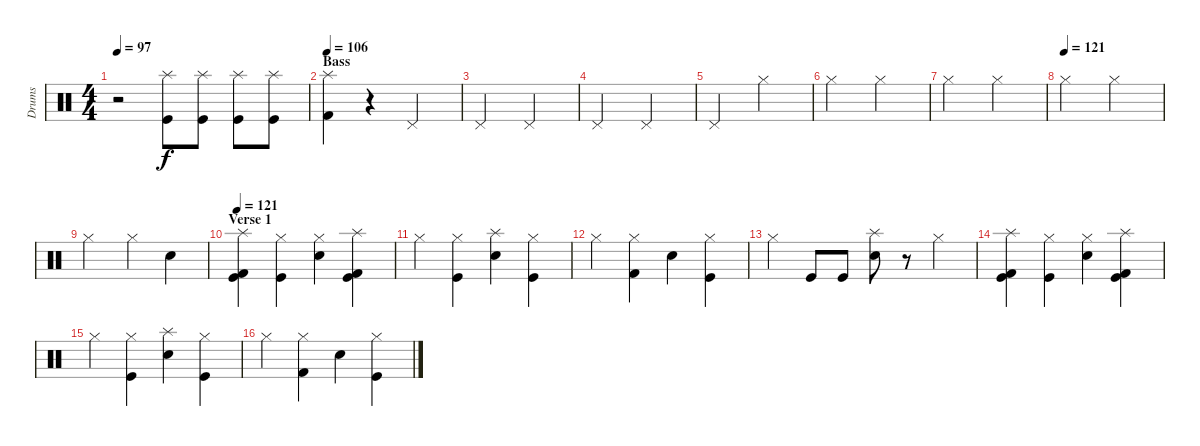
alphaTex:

\track ("Drums" "Drums") {instrument percussion}
\staff {score}
\articulation defaults
\ts (4 4)
\tempo 97
\clef neutral
\ks c
r.2{dy f} ("Splash (hit)" "Kick (hit)").8 ("Splash (hit)" "Kick (hit)").8 ("Splash (hit)" "Kick (hit)").8 ("Splash (hit)" "Kick (hit)").8 |
\section ("" "Bass")
\tempo 106
("Splash (hit)" "Kick (hit) 2").4 r.4 "Pedal Hi-Hat (hit)".2 |
"Pedal Hi-Hat (hit)".2 "Pedal Hi-Hat (hit)".2 |
"Pedal Hi-Hat (hit)".2 "Pedal Hi-Hat (hit)".2 |
"Pedal Hi-Hat (hit)".2 "Hi-Hat (closed)".2 |
"Hi-Hat (closed)".2 "Hi-Hat (closed)".2 |
"Hi-Hat (closed)".2 "Hi-Hat (closed)".2 |
\tempo (121)
"Hi-Hat (closed)".2 "Hi-Hat (closed)".2 |
"Hi-Hat (closed)".2 "Hi-Hat (closed)".4 "Electric Snare (hit)".4 |
\section ("" "Verse 1")
\tempo 121
("Kick (hit) 2" "Kick (hit)" "Splash (hit)").4 ("Kick (hit)" "Hi-Hat (closed)").4 ("Electric Snare (hit)" "Hi-Hat (closed)").4 ("Kick (hit) 2" "Kick (hit)" "Splash (hit)").4 |
"Hi-Hat (closed)".4 ("Kick (hit)" "Hi-Hat (closed)").4 ("Electric Snare (hit)" "Splash (hit)").4 ("Kick (hit)" "Hi-Hat (closed)").4 |
"Hi-Hat (closed)".4 ("Kick (hit) 2" "Hi-Hat (closed)").4 "Electric Snare (hit)".4 ("Kick (hit)" "Hi-Hat (closed)").4 |
"Hi-Hat (closed)".4 "Kick (hit)".8 "Kick (hit)".8 ("Electric Snare (hit)" "Splash (hit)").8 r.8 "Hi-Hat (closed)".4 |
("Kick (hit) 2" "Kick (hit)" "Splash (hit)").4 ("Kick (hit)" "Hi-Hat (closed)").4 ("Electric Snare (hit)" "Hi-Hat (closed)").4 ("Kick (hit) 2" "Kick (hit)" "Splash (hit)").4 |
"Hi-Hat (closed)".4 ("Kick (hit)" "Hi-Hat (closed)").4 ("Electric Snare (hit)" "Splash (hit)").4 ("Kick (hit)" "Hi-Hat (closed)").4 |
"Hi-Hat (closed)".4 ("Kick (hit) 2" "Hi-Hat (closed)").4 "Electric Snare (hit)".4 ("Kick (hit)" "Hi-Hat (closed)").4
